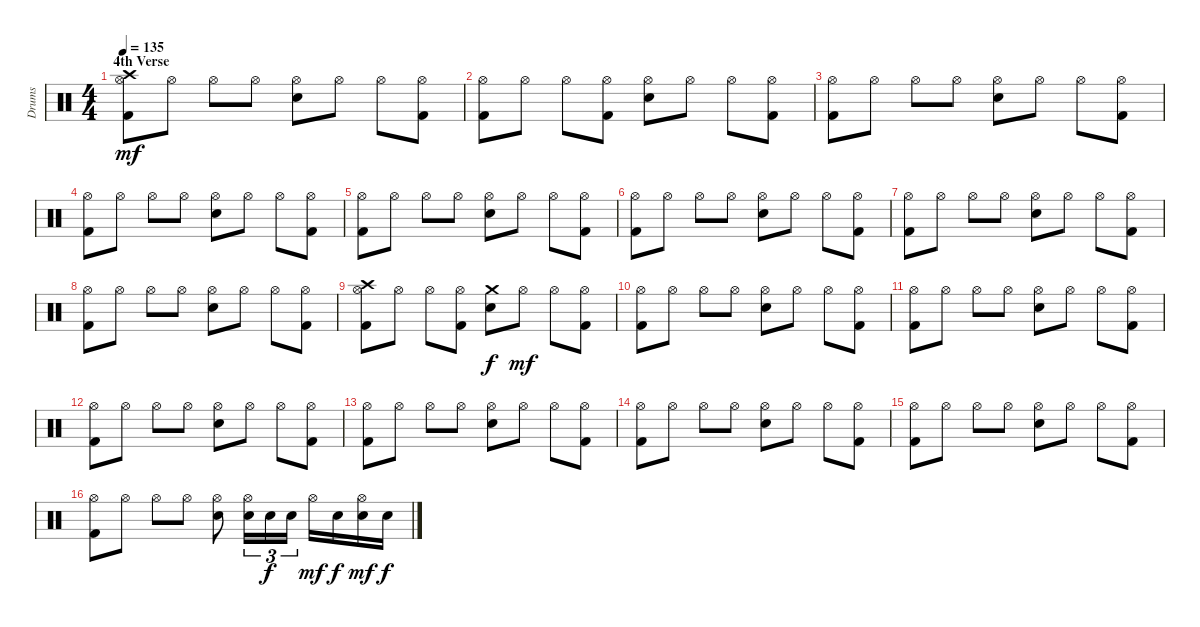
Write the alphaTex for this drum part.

\track ("Drums" "Drums") {instrument percussion}
\staff {score}
\articulation defaults
\ts (4 4)
\section ("" "4th Verse")
\tempo 135
\clef neutral
\ks c
("Kick (hit) 2" "Hi-Hat (open)" "Crash high (hit)").8{dy mf} "Hi-Hat (open)".8 "Hi-Hat (open)".8 "Hi-Hat (open)".8 ("Snare (hit) 2" "Hi-Hat (open)").8 "Hi-Hat (open)".8 "Hi-Hat (open)".8 ("Kick (hit) 2" "Hi-Hat (open)").8 |
("Kick (hit) 2" "Hi-Hat (open)").8 "Hi-Hat (open)".8 "Hi-Hat (open)".8 ("Kick (hit) 2" "Hi-Hat (open)").8 ("Snare (hit) 2" "Hi-Hat (open)").8 "Hi-Hat (open)".8 "Hi-Hat (open)".8 ("Kick (hit) 2" "Hi-Hat (open)").8 |
("Kick (hit) 2" "Hi-Hat (open)").8 "Hi-Hat (open)".8 "Hi-Hat (open)".8 "Hi-Hat (open)".8 ("Snare (hit) 2" "Hi-Hat (open)").8 "Hi-Hat (open)".8 "Hi-Hat (open)".8 ("Kick (hit) 2" "Hi-Hat (open)").8 |
("Kick (hit) 2" "Hi-Hat (open)").8 "Hi-Hat (open)".8 "Hi-Hat (open)".8 "Hi-Hat (open)".8 ("Snare (hit) 2" "Hi-Hat (open)").8 "Hi-Hat (open)".8 "Hi-Hat (open)".8 ("Kick (hit) 2" "Hi-Hat (open)").8 |
("Kick (hit) 2" "Hi-Hat (open)").8 "Hi-Hat (open)".8 "Hi-Hat (open)".8 "Hi-Hat (open)".8 ("Snare (hit) 2" "Hi-Hat (open)").8 "Hi-Hat (open)".8 "Hi-Hat (open)".8 ("Kick (hit) 2" "Hi-Hat (open)").8 |
("Kick (hit) 2" "Hi-Hat (open)").8 "Hi-Hat (open)".8 "Hi-Hat (open)".8 "Hi-Hat (open)".8 ("Snare (hit) 2" "Hi-Hat (open)").8 "Hi-Hat (open)".8 "Hi-Hat (open)".8 ("Kick (hit) 2" "Hi-Hat (open)").8 |
("Kick (hit) 2" "Hi-Hat (open)").8 "Hi-Hat (open)".8 "Hi-Hat (open)".8 "Hi-Hat (open)".8 ("Snare (hit) 2" "Hi-Hat (open)").8 "Hi-Hat (open)".8 "Hi-Hat (open)".8 ("Kick (hit) 2" "Hi-Hat (open)").8 |
("Kick (hit) 2" "Hi-Hat (open)").8 "Hi-Hat (open)".8 "Hi-Hat (open)".8 "Hi-Hat (open)".8 ("Snare (hit) 2" "Hi-Hat (open)").8 "Hi-Hat (open)".8 "Hi-Hat (open)".8 ("Kick (hit) 2" "Hi-Hat (open)").8 |
("Kick (hit) 2" "Hi-Hat (open)" "Crash high (hit)").8 "Hi-Hat (open)".8 "Hi-Hat (open)".8 ("Kick (hit) 2" "Hi-Hat (open)").8 ("Snare (hit) 2" "Crash medium (hit)").8{dy f} "Hi-Hat (open)".8{dy mf} "Hi-Hat (open)".8 ("Kick (hit) 2" "Hi-Hat (open)").8 |
("Kick (hit) 2" "Hi-Hat (open)").8 "Hi-Hat (open)".8 "Hi-Hat (open)".8 "Hi-Hat (open)".8 ("Snare (hit) 2" "Hi-Hat (open)").8 "Hi-Hat (open)".8 "Hi-Hat (open)".8 ("Kick (hit) 2" "Hi-Hat (open)").8 |
("Kick (hit) 2" "Hi-Hat (open)").8 "Hi-Hat (open)".8 "Hi-Hat (open)".8 "Hi-Hat (open)".8 ("Snare (hit) 2" "Hi-Hat (open)").8 "Hi-Hat (open)".8 "Hi-Hat (open)".8 ("Kick (hit) 2" "Hi-Hat (open)").8 |
("Kick (hit) 2" "Hi-Hat (open)").8 "Hi-Hat (open)".8 "Hi-Hat (open)".8 "Hi-Hat (open)".8 ("Snare (hit) 2" "Hi-Hat (open)").8 "Hi-Hat (open)".8 "Hi-Hat (open)".8 ("Kick (hit) 2" "Hi-Hat (open)").8 |
("Kick (hit) 2" "Hi-Hat (open)").8 "Hi-Hat (open)".8 "Hi-Hat (open)".8 "Hi-Hat (open)".8 ("Snare (hit) 2" "Hi-Hat (open)").8 "Hi-Hat (open)".8 "Hi-Hat (open)".8 ("Kick (hit) 2" "Hi-Hat (open)").8 |
("Kick (hit) 2" "Hi-Hat (open)").8 "Hi-Hat (open)".8 "Hi-Hat (open)".8 "Hi-Hat (open)".8 ("Snare (hit) 2" "Hi-Hat (open)").8 "Hi-Hat (open)".8 "Hi-Hat (open)".8 ("Kick (hit) 2" "Hi-Hat (open)").8 |
("Kick (hit) 2" "Hi-Hat (open)").8 "Hi-Hat (open)".8 "Hi-Hat (open)".8 "Hi-Hat (open)".8 ("Snare (hit) 2" "Hi-Hat (open)").8 "Hi-Hat (open)".8 "Hi-Hat (open)".8 ("Kick (hit) 2" "Hi-Hat (open)").8 |
("Kick (hit) 2" "Hi-Hat (open)").8 "Hi-Hat (open)".8 "Hi-Hat (open)".8 "Hi-Hat (open)".8 ("Snare (hit) 2" "Hi-Hat (open)").8 ("Snare (hit) 2" "Hi-Hat (open)").16{tu (3 2)} "Snare (hit) 2".16{tu (3 2) dy f} "Snare (hit) 2".16{tu (3 2)} "Hi-Hat (open)".16{dy mf} "Snare (hit) 2".16{dy f} ("Snare (hit) 2" "Hi-Hat (open)").16{dy mf} "Snare (hit) 2".16{dy f}
